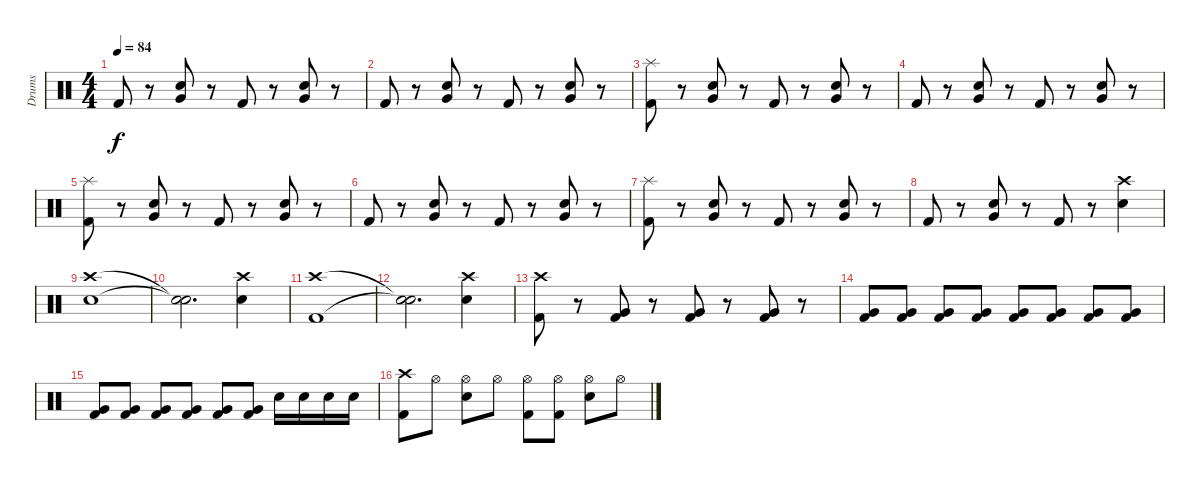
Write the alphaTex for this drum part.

\track ("Drums" "Drums") {instrument percussion}
\staff {score}
\articulation defaults
\ts (4 4)
\tempo 84
\clef neutral
\ks c "Kick (hit) 2".8{dy f}
r.8 ("Very Low Tom (hit)" "Snare (hit) 2").8 r.8 "Kick (hit) 2".8 r.8 ("Very Low Tom (hit)" "Snare (hit) 2").8 r.8 |
"Kick (hit) 2".8 r.8 ("Very Low Tom (hit)" "Snare (hit) 2").8 r.8 "Kick (hit) 2".8 r.8 ("Very Low Tom (hit)" "Snare (hit) 2").8 r.8 |
("Splash (hit)" "Kick (hit) 2").8 r.8 ("Very Low Tom (hit)" "Snare (hit) 2").8 r.8 "Kick (hit) 2".8 r.8 ("Very Low Tom (hit)" "Snare (hit) 2").8 r.8 |
"Kick (hit) 2".8 r.8 ("Very Low Tom (hit)" "Snare (hit) 2").8 r.8 "Kick (hit) 2".8 r.8 ("Very Low Tom (hit)" "Snare (hit) 2").8 r.8 |
("Splash (hit)" "Kick (hit) 2").8 r.8 ("Very Low Tom (hit)" "Snare (hit) 2").8 r.8 "Kick (hit) 2".8 r.8 ("Very Low Tom (hit)" "Snare (hit) 2").8 r.8 |
"Kick (hit) 2".8 r.8 ("Very Low Tom (hit)" "Snare (hit) 2").8 r.8 "Kick (hit) 2".8 r.8 ("Very Low Tom (hit)" "Snare (hit) 2").8 r.8 |
("Splash (hit)" "Kick (hit) 2").8 r.8 ("Very Low Tom (hit)" "Snare (hit) 2").8 r.8 "Kick (hit) 2".8 r.8 ("Very Low Tom (hit)" "Snare (hit) 2").8 r.8 |
"Kick (hit) 2".8 r.8 ("Very Low Tom (hit)" "Snare (hit) 2").8 r.8 "Kick (hit) 2".8 r.8 ("Crash high (hit)" "Snare (hit) 2").4 |
("Crash high (hit)" "Snare (hit) 2").1 |
("Snare (hit)"{t} "Snare (hit)"{t}).2{d} ("Crash high (hit)" "Snare (hit) 2").4 |
("Crash high (hit)" "Kick (hit) 2").1 |
("Snare (hit)"{t} "Snare (hit)"{t}).2{d} ("Crash high (hit)" "Snare (hit) 2").4 |
("Crash high (hit)" "Kick (hit) 2").8 r.8 ("Very Low Tom (hit)" "Kick (hit) 2").8 r.8 ("Very Low Tom (hit)" "Kick (hit) 2").8 r.8 ("Very Low Tom (hit)" "Kick (hit) 2").8 r.8 |
("Very Low Tom (hit)" "Kick (hit) 2").8 ("Very Low Tom (hit)" "Kick (hit) 2").8 ("Very Low Tom (hit)" "Kick (hit) 2").8 ("Very Low Tom (hit)" "Kick (hit) 2").8 ("Very Low Tom (hit)" "Kick (hit) 2").8 ("Very Low Tom (hit)" "Kick (hit) 2").8 ("Very Low Tom (hit)" "Kick (hit) 2").8 ("Very Low Tom (hit)" "Kick (hit) 2").8 |
("Very Low Tom (hit)" "Kick (hit) 2").8 ("Very Low Tom (hit)" "Kick (hit) 2").8 ("Very Low Tom (hit)" "Kick (hit) 2").8 ("Very Low Tom (hit)" "Kick (hit) 2").8 ("Very Low Tom (hit)" "Kick (hit) 2").8 ("Very Low Tom (hit)" "Kick (hit) 2").8 "Snare (hit) 2".16 "Snare (hit) 2".16 "Snare (hit) 2".16 "Snare (hit) 2".16 |
("Crash high (hit)" "Kick (hit) 2").8 "Hi-Hat (open)".8 ("Hi-Hat (open)" "Snare (hit) 2").8 "Hi-Hat (open)".8 ("Hi-Hat (open)" "Kick (hit) 2").8 ("Hi-Hat (open)" "Kick (hit) 2").8 ("Hi-Hat (open)" "Snare (hit) 2").8 "Hi-Hat (open)".8
